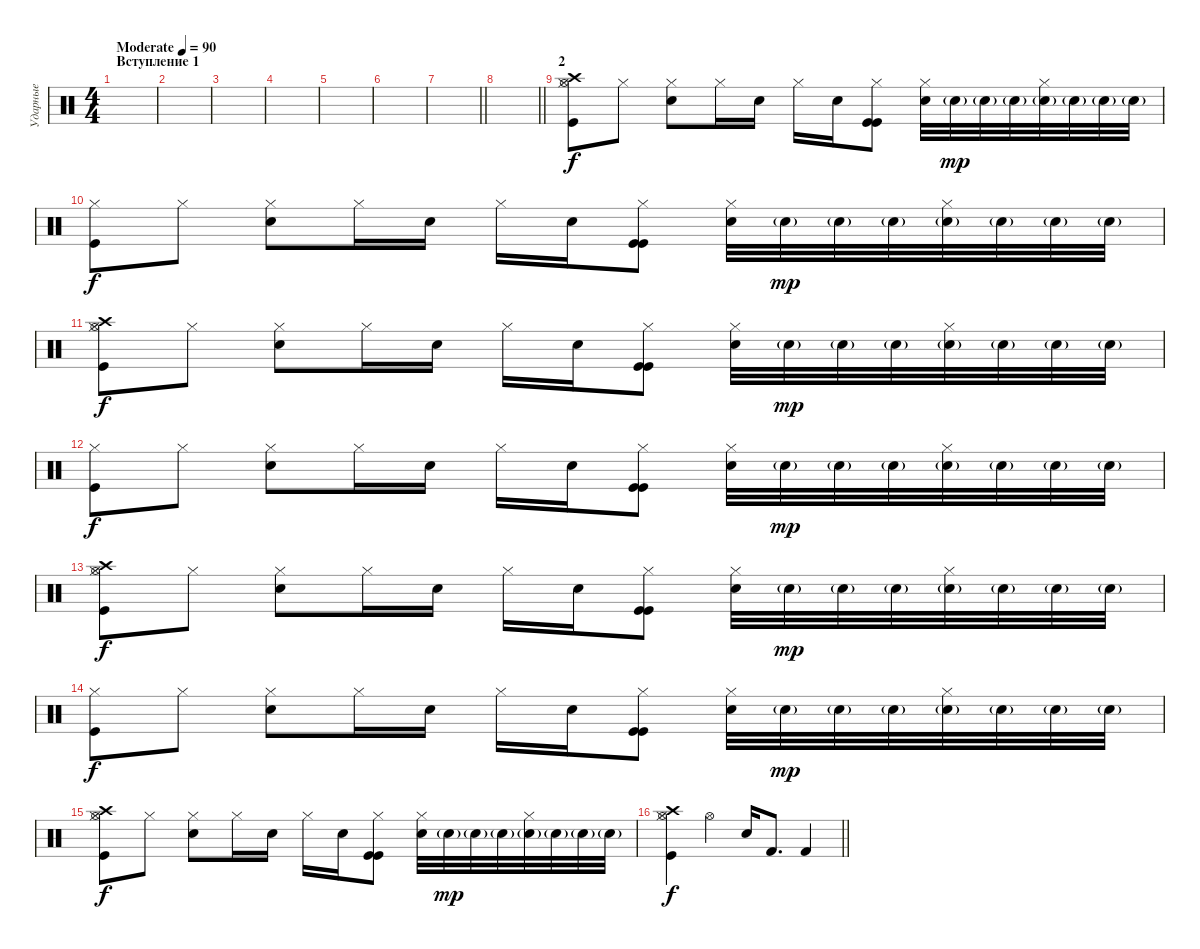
\track ("Ударные" "Ударные") {instrument percussion}
\staff {score}
\articulation defaults
\ts (4 4)
\section ("" "Вступление 1")
\tempo (90 "Moderate")
\clef neutral
\ks c
|
|
|
|
|
|
\barLineRight lightlight
|
\barLineRight lightlight
|
\section ("" "2")
("Hi-Hat (closed)" "Kick (hit)" "Hi-Hat (open)" "Crash high (hit)").8{volume 12} "Hi-Hat (closed)".8 ("Hi-Hat (closed)" "Electric Snare (hit)").8 "Hi-Hat (closed)".16 "Electric Snare (hit)".16 "Hi-Hat (closed)".16 "Electric Snare (hit)".16 ("Hi-Hat (closed)" "Kick (hit)" "Kick (hit)").8 ("Hi-Hat (closed)" "Electric Snare (hit)").32 "Snare (hit) 2"{g}.32{dy mp} "Snare (hit) 2"{g}.32 "Snare (hit) 2"{g}.32 ("Snare (hit) 2"{g} "Hi-Hat (closed)").32 "Snare (hit) 2"{g}.32 "Snare (hit) 2"{g}.32 "Snare (hit) 2"{g}.32 |
("Hi-Hat (closed)" "Kick (hit)").8{dy f} "Hi-Hat (closed)".8 ("Hi-Hat (closed)" "Electric Snare (hit)").8 "Hi-Hat (closed)".16 "Electric Snare (hit)".16 "Hi-Hat (closed)".16 "Electric Snare (hit)".16 ("Hi-Hat (closed)" "Kick (hit)" "Kick (hit)").8 ("Hi-Hat (closed)" "Electric Snare (hit)").32 "Snare (hit) 2"{g}.32{dy mp} "Snare (hit) 2"{g}.32 "Snare (hit) 2"{g}.32 ("Snare (hit) 2"{g} "Hi-Hat (closed)").32 "Snare (hit) 2"{g}.32 "Snare (hit) 2"{g}.32 "Snare (hit) 2"{g}.32 |
("Hi-Hat (closed)" "Kick (hit)" "Hi-Hat (open)" "Crash high (hit)").8{dy f} "Hi-Hat (closed)".8 ("Hi-Hat (closed)" "Electric Snare (hit)").8 "Hi-Hat (closed)".16 "Electric Snare (hit)".16 "Hi-Hat (closed)".16 "Electric Snare (hit)".16 ("Hi-Hat (closed)" "Kick (hit)" "Kick (hit)").8 ("Hi-Hat (closed)" "Electric Snare (hit)").32 "Snare (hit) 2"{g}.32{dy mp} "Snare (hit) 2"{g}.32 "Snare (hit) 2"{g}.32 ("Snare (hit) 2"{g} "Hi-Hat (closed)").32 "Snare (hit) 2"{g}.32 "Snare (hit) 2"{g}.32 "Snare (hit) 2"{g}.32 |
("Hi-Hat (closed)" "Kick (hit)").8{dy f} "Hi-Hat (closed)".8 ("Hi-Hat (closed)" "Electric Snare (hit)").8 "Hi-Hat (closed)".16 "Electric Snare (hit)".16 "Hi-Hat (closed)".16 "Electric Snare (hit)".16 ("Hi-Hat (closed)" "Kick (hit)" "Kick (hit)").8 ("Hi-Hat (closed)" "Electric Snare (hit)").32 "Snare (hit) 2"{g}.32{dy mp} "Snare (hit) 2"{g}.32 "Snare (hit) 2"{g}.32 ("Snare (hit) 2"{g} "Hi-Hat (closed)").32 "Snare (hit) 2"{g}.32 "Snare (hit) 2"{g}.32 "Snare (hit) 2"{g}.32 |
("Hi-Hat (closed)" "Kick (hit)" "Hi-Hat (open)" "Crash high (hit)").8{dy f} "Hi-Hat (closed)".8 ("Hi-Hat (closed)" "Electric Snare (hit)").8 "Hi-Hat (closed)".16 "Electric Snare (hit)".16 "Hi-Hat (closed)".16 "Electric Snare (hit)".16 ("Hi-Hat (closed)" "Kick (hit)" "Kick (hit)").8 ("Hi-Hat (closed)" "Electric Snare (hit)").32 "Snare (hit) 2"{g}.32{dy mp} "Snare (hit) 2"{g}.32 "Snare (hit) 2"{g}.32 ("Snare (hit) 2"{g} "Hi-Hat (closed)").32 "Snare (hit) 2"{g}.32 "Snare (hit) 2"{g}.32 "Snare (hit) 2"{g}.32 |
("Hi-Hat (closed)" "Kick (hit)").8{dy f} "Hi-Hat (closed)".8 ("Hi-Hat (closed)" "Electric Snare (hit)").8 "Hi-Hat (closed)".16 "Electric Snare (hit)".16 "Hi-Hat (closed)".16 "Electric Snare (hit)".16 ("Hi-Hat (closed)" "Kick (hit)" "Kick (hit)").8 ("Hi-Hat (closed)" "Electric Snare (hit)").32 "Snare (hit) 2"{g}.32{dy mp} "Snare (hit) 2"{g}.32 "Snare (hit) 2"{g}.32 ("Snare (hit) 2"{g} "Hi-Hat (closed)").32 "Snare (hit) 2"{g}.32 "Snare (hit) 2"{g}.32 "Snare (hit) 2"{g}.32 |
("Hi-Hat (closed)" "Kick (hit)" "Hi-Hat (open)" "Crash high (hit)").8{dy f} "Hi-Hat (closed)".8 ("Hi-Hat (closed)" "Electric Snare (hit)").8 "Hi-Hat (closed)".16 "Electric Snare (hit)".16 "Hi-Hat (closed)".16 "Electric Snare (hit)".16 ("Hi-Hat (closed)" "Kick (hit)" "Kick (hit)").8 ("Hi-Hat (closed)" "Electric Snare (hit)").32 "Snare (hit) 2"{g}.32{dy mp} "Snare (hit) 2"{g}.32 "Snare (hit) 2"{g}.32 ("Snare (hit) 2"{g} "Hi-Hat (closed)").32 "Snare (hit) 2"{g}.32 "Snare (hit) 2"{g}.32 "Snare (hit) 2"{g}.32 |
\barLineRight lightlight
("Hi-Hat (closed)" "Kick (hit)" "Hi-Hat (open)" "Crash high (hit)").4{dy f volume 16} "Hi-Hat (open)".4 "Electric Snare (hit)".16 "Kick (hit) 2".8{d} "Kick (hit) 2".4
